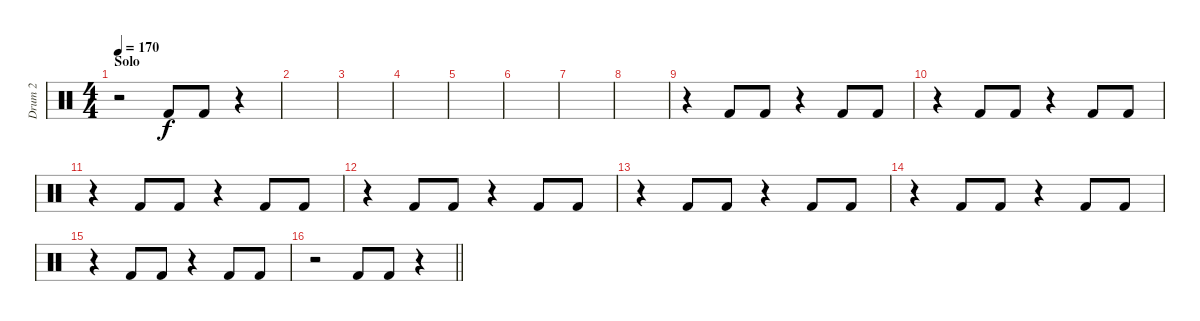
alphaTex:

\track ("Drum 2" "Drum 2") {instrument percussion}
\staff {score}
\articulation defaults
\ts (4 4)
\section ("" "Solo")
\tempo 170
\clef neutral
\ks c
r.2{dy f} "Kick (hit) 2".8 "Kick (hit) 2".8 r.4 |
|
|
|
|
|
|
|
r.4 "Kick (hit) 2".8 "Kick (hit) 2".8 r.4 "Kick (hit) 2".8 "Kick (hit) 2".8 |
r.4 "Kick (hit) 2".8 "Kick (hit) 2".8 r.4 "Kick (hit) 2".8 "Kick (hit) 2".8 |
r.4 "Kick (hit) 2".8 "Kick (hit) 2".8 r.4 "Kick (hit) 2".8 "Kick (hit) 2".8 |
r.4 "Kick (hit) 2".8 "Kick (hit) 2".8 r.4 "Kick (hit) 2".8 "Kick (hit) 2".8 |
r.4 "Kick (hit) 2".8 "Kick (hit) 2".8 r.4 "Kick (hit) 2".8 "Kick (hit) 2".8 |
r.4 "Kick (hit) 2".8 "Kick (hit) 2".8 r.4 "Kick (hit) 2".8 "Kick (hit) 2".8 |
r.4 "Kick (hit) 2".8 "Kick (hit) 2".8 r.4 "Kick (hit) 2".8 "Kick (hit) 2".8 |
\barLineRight lightlight
r.2 "Kick (hit) 2".8 "Kick (hit) 2".8 r.4
